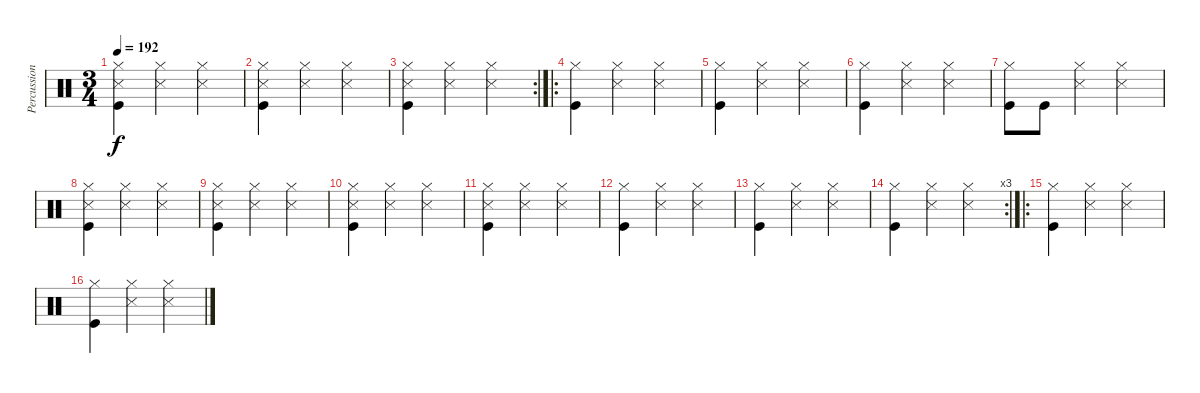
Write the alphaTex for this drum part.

\track ("Percussion" "Percussion") {instrument percussion}
\staff {score}
\articulation defaults
\ts (3 4)
\tempo 192
\clef neutral
\ks c
("Hi-Hat (closed)" "Snare (side stick) 3" "Kick (hit)").4{dy f} ("Hi-Hat (closed)" "Snare (side stick) 3").4 ("Hi-Hat (closed)" "Snare (side stick) 3").4 |
("Hi-Hat (closed)" "Snare (side stick) 3" "Kick (hit)").4 ("Hi-Hat (closed)" "Snare (side stick) 3").4 ("Hi-Hat (closed)" "Snare (side stick) 3").4 |
\rc 2
("Hi-Hat (closed)" "Snare (side stick) 3" "Kick (hit)").4 ("Hi-Hat (closed)" "Snare (side stick) 3").4 ("Hi-Hat (closed)" "Snare (side stick) 3").4 |
\ro
("Kick (hit)" "Hi-Hat (closed)").4 ("Hi-Hat (closed)" "Snare (side stick) 3").4 ("Hi-Hat (closed)" "Snare (side stick) 3").4 |
("Kick (hit)" "Hi-Hat (closed)").4 ("Hi-Hat (closed)" "Snare (side stick) 3").4 ("Hi-Hat (closed)" "Snare (side stick) 3").4 |
("Kick (hit)" "Hi-Hat (closed)").4 ("Hi-Hat (closed)" "Snare (side stick) 3").4 ("Hi-Hat (closed)" "Snare (side stick) 3").4 |
("Kick (hit)" "Hi-Hat (closed)").8 "Kick (hit)".8 ("Hi-Hat (closed)" "Snare (side stick) 3").4 ("Hi-Hat (closed)" "Snare (side stick) 3").4 |
("Hi-Hat (closed)" "Snare (side stick) 3" "Kick (hit)").4 ("Hi-Hat (closed)" "Snare (side stick) 3").4 ("Hi-Hat (closed)" "Snare (side stick) 3").4 |
("Hi-Hat (closed)" "Snare (side stick) 3" "Kick (hit)").4 ("Hi-Hat (closed)" "Snare (side stick) 3").4 ("Hi-Hat (closed)" "Snare (side stick) 3").4 |
("Hi-Hat (closed)" "Snare (side stick) 3" "Kick (hit)").4 ("Hi-Hat (closed)" "Snare (side stick) 3").4 ("Hi-Hat (closed)" "Snare (side stick) 3").4 |
("Hi-Hat (closed)" "Snare (side stick) 3" "Kick (hit)").4 ("Hi-Hat (closed)" "Snare (side stick) 3").4 ("Hi-Hat (closed)" "Snare (side stick) 3").4 |
("Kick (hit)" "Hi-Hat (closed)").4 ("Hi-Hat (closed)" "Snare (side stick) 3").4 ("Hi-Hat (closed)" "Snare (side stick) 3").4 |
("Kick (hit)" "Hi-Hat (closed)").4 ("Hi-Hat (closed)" "Snare (side stick) 3").4 ("Hi-Hat (closed)" "Snare (side stick) 3").4 |
\rc 3
("Kick (hit)" "Hi-Hat (closed)").4 ("Hi-Hat (closed)" "Snare (side stick) 3").4 ("Hi-Hat (closed)" "Snare (side stick) 3").4 |
\ro
("Kick (hit)" "Hi-Hat (closed)").4 ("Hi-Hat (closed)" "Snare (side stick) 3").4 ("Hi-Hat (closed)" "Snare (side stick) 3").4 |
("Kick (hit)" "Hi-Hat (closed)").4 ("Hi-Hat (closed)" "Snare (side stick) 3").4 ("Hi-Hat (closed)" "Snare (side stick) 3").4
